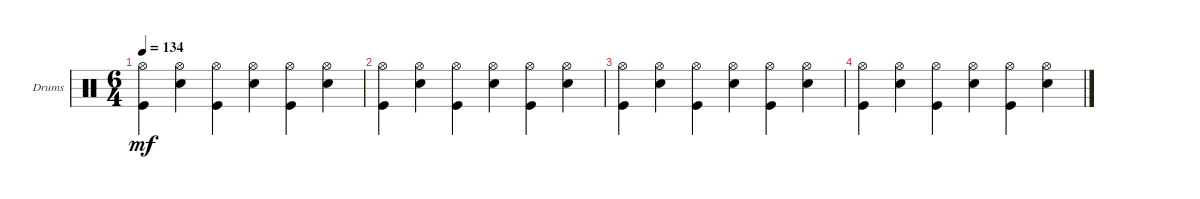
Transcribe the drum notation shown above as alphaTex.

\defaultSystemsLayout 4
\bracketExtendMode groupsimilarinstruments
\firstSystemTrackNameOrientation horizontal
\otherSystemsTrackNameOrientation horizontal
\track ("Drumkit" "Drums") {instrument percussion}
\staff {score}
\articulation defaults
\ts (6 4)
\tempo 134
\clef neutral
\ks c
("Kick (hit)" "Hi-Hat (open)").4{dy mf} ("Snare (hit) 2" "Hi-Hat (open)").4 ("Kick (hit)" "Hi-Hat (open)").4 ("Snare (hit) 2" "Hi-Hat (open)").4 ("Kick (hit)" "Hi-Hat (open)").4 ("Snare (hit) 2" "Hi-Hat (open)").4 |
("Kick (hit)" "Hi-Hat (open)").4 ("Snare (hit) 2" "Hi-Hat (open)").4 ("Kick (hit)" "Hi-Hat (open)").4 ("Snare (hit) 2" "Hi-Hat (open)").4 ("Kick (hit)" "Hi-Hat (open)").4 ("Snare (hit) 2" "Hi-Hat (open)").4 |
("Kick (hit)" "Hi-Hat (open)").4 ("Snare (hit) 2" "Hi-Hat (open)").4 ("Kick (hit)" "Hi-Hat (open)").4 ("Snare (hit) 2" "Hi-Hat (open)").4 ("Kick (hit)" "Hi-Hat (open)").4 ("Snare (hit) 2" "Hi-Hat (open)").4 |
("Kick (hit)" "Hi-Hat (open)").4 ("Snare (hit) 2" "Hi-Hat (open)").4 ("Kick (hit)" "Hi-Hat (open)").4 ("Snare (hit) 2" "Hi-Hat (open)").4 ("Kick (hit)" "Hi-Hat (open)").4 ("Snare (hit) 2" "Hi-Hat (open)").4
